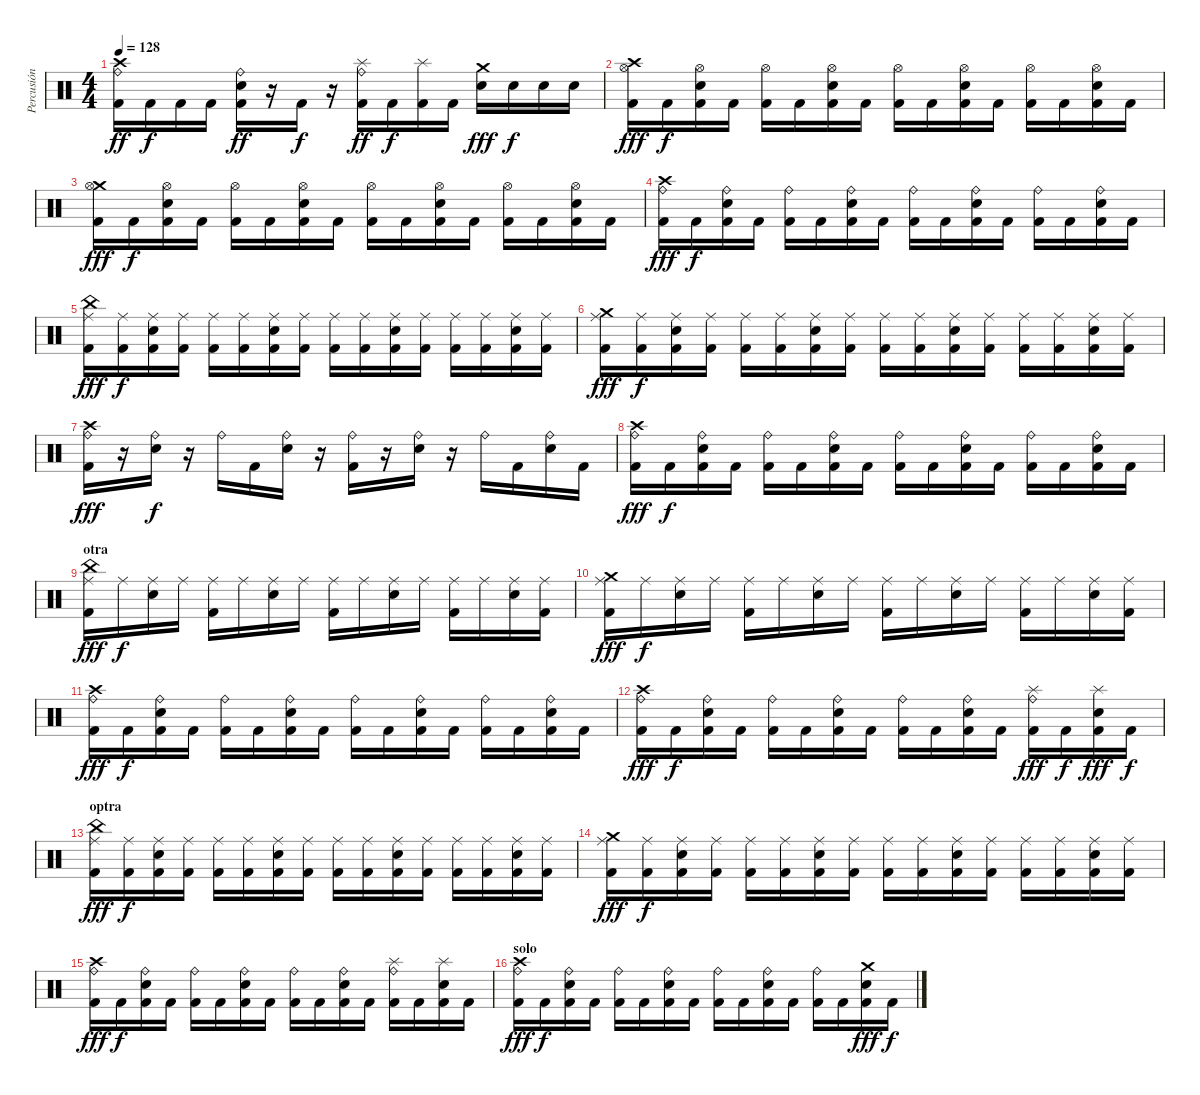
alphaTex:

\track ("Percusión" "Percusión") {instrument percussion}
\staff {score}
\articulation defaults
\ts (4 4)
\tempo 128
\clef neutral
\ks c
("Crash high (hit)" "Ride (bell)" "Kick (hit) 2").16{dy ff} "Kick (hit) 2".16{dy f} "Kick (hit) 2".16 "Kick (hit) 2".16 ("Ride (bell)" "Kick (hit) 2" "Snare (hit) 2").16{dy ff} r.16 "Kick (hit) 2".16{dy f} r.16 ("Splash (hit)" "Ride (bell)" "Kick (hit) 2").16{dy ff} "Kick (hit) 2".16{dy f} ("Splash (hit)" "Kick (hit) 2").16 "Kick (hit) 2".16 ("Crash medium (hit)" "Snare (hit) 2").16{dy fff} "Snare (hit) 2".16{dy f} "Snare (hit) 2".16 "Snare (hit) 2".16 |
("Crash high (hit)" "Hi-Hat (open)" "Kick (hit) 2").16{dy fff} "Kick (hit) 2".16{dy f} ("Hi-Hat (open)" "Kick (hit) 2" "Snare (hit) 2").16 "Kick (hit) 2".16 ("Hi-Hat (open)" "Kick (hit) 2").16 "Kick (hit) 2".16 ("Hi-Hat (open)" "Kick (hit) 2" "Snare (hit) 2").16 "Kick (hit) 2".16 ("Hi-Hat (open)" "Kick (hit) 2").16 "Kick (hit) 2".16 ("Hi-Hat (open)" "Kick (hit) 2" "Snare (hit) 2").16 "Kick (hit) 2".16 ("Hi-Hat (open)" "Kick (hit) 2").16 "Kick (hit) 2".16 ("Hi-Hat (open)" "Kick (hit) 2" "Snare (hit) 2").16 "Kick (hit) 2".16 |
("Crash medium (hit)" "Hi-Hat (open)" "Kick (hit) 2").16{dy fff} "Kick (hit) 2".16{dy f} ("Hi-Hat (open)" "Kick (hit) 2" "Snare (hit) 2").16 "Kick (hit) 2".16 ("Hi-Hat (open)" "Kick (hit) 2").16 "Kick (hit) 2".16 ("Hi-Hat (open)" "Kick (hit) 2" "Snare (hit) 2").16 "Kick (hit) 2".16 ("Hi-Hat (open)" "Kick (hit) 2").16 "Kick (hit) 2".16 ("Hi-Hat (open)" "Kick (hit) 2" "Snare (hit) 2").16 "Kick (hit) 2".16 ("Hi-Hat (open)" "Kick (hit) 2").16 "Kick (hit) 2".16 ("Hi-Hat (open)" "Kick (hit) 2" "Snare (hit) 2").16 "Kick (hit) 2".16 |
("Crash high (hit)" "Ride (bell)" "Kick (hit) 2").16{dy fff} "Kick (hit) 2".16{dy f} ("Ride (bell)" "Kick (hit) 2" "Snare (hit) 2").16 "Kick (hit) 2".16 ("Ride (bell)" "Kick (hit) 2").16 "Kick (hit) 2".16 ("Ride (bell)" "Kick (hit) 2" "Snare (hit) 2").16 "Kick (hit) 2".16 ("Ride (bell)" "Kick (hit) 2").16 "Kick (hit) 2".16 ("Ride (bell)" "Kick (hit) 2" "Snare (hit) 2").16 "Kick (hit) 2".16 ("Ride (bell)" "Kick (hit) 2").16 "Kick (hit) 2".16 ("Ride (bell)" "Kick (hit) 2" "Snare (hit) 2").16 "Kick (hit) 2".16 |
("China (hit)" "Ride (middle)" "Kick (hit) 2").16{dy fff} ("Ride (middle)" "Kick (hit) 2").16{dy f} ("Ride (middle)" "Kick (hit) 2" "Snare (hit) 2").16 ("Ride (middle)" "Kick (hit) 2").16 ("Ride (middle)" "Kick (hit) 2").16 ("Ride (middle)" "Kick (hit) 2").16 ("Ride (middle)" "Kick (hit) 2" "Snare (hit) 2").16 ("Ride (middle)" "Kick (hit) 2").16 ("Ride (middle)" "Kick (hit) 2").16 ("Ride (middle)" "Kick (hit) 2").16 ("Ride (middle)" "Kick (hit) 2" "Snare (hit) 2").16 ("Ride (middle)" "Kick (hit) 2").16 ("Ride (middle)" "Kick (hit) 2").16 ("Ride (middle)" "Kick (hit) 2").16 ("Ride (middle)" "Kick (hit) 2" "Snare (hit) 2").16 ("Ride (middle)" "Kick (hit) 2").16 |
("Crash medium (hit)" "Ride (middle)" "Kick (hit) 2").16{dy fff} ("Ride (middle)" "Kick (hit) 2").16{dy f} ("Ride (middle)" "Kick (hit) 2" "Snare (hit) 2").16 ("Ride (middle)" "Kick (hit) 2").16 ("Ride (middle)" "Kick (hit) 2").16 ("Ride (middle)" "Kick (hit) 2").16 ("Ride (middle)" "Kick (hit) 2" "Snare (hit) 2").16 ("Ride (middle)" "Kick (hit) 2").16 ("Ride (middle)" "Kick (hit) 2").16 ("Ride (middle)" "Kick (hit) 2").16 ("Ride (middle)" "Kick (hit) 2" "Snare (hit) 2").16 ("Ride (middle)" "Kick (hit) 2").16 ("Ride (middle)" "Kick (hit) 2").16 ("Ride (middle)" "Kick (hit) 2").16 ("Ride (middle)" "Kick (hit) 2" "Snare (hit) 2").16 ("Ride (middle)" "Kick (hit) 2").16 |
("Crash high (hit)" "Ride (bell)" "Kick (hit) 2").16{dy fff} r.16 ("Ride (bell)" "Snare (hit) 2").16{dy f} r.16 "Ride (bell)".16 "Kick (hit) 2".16 ("Ride (bell)" "Snare (hit) 2").16 r.16 ("Ride (bell)" "Kick (hit) 2").16 r.16 ("Ride (bell)" "Snare (hit) 2").16 r.16 "Ride (bell)".16 "Kick (hit) 2".16 ("Ride (bell)" "Snare (hit) 2").16 "Kick (hit) 2".16 |
("Crash high (hit)" "Ride (bell)" "Kick (hit) 2").16{dy fff} "Kick (hit) 2".16{dy f} ("Ride (bell)" "Kick (hit) 2" "Snare (hit) 2").16 "Kick (hit) 2".16 ("Ride (bell)" "Kick (hit) 2").16 "Kick (hit) 2".16 ("Ride (bell)" "Kick (hit) 2" "Snare (hit) 2").16 "Kick (hit) 2".16 ("Ride (bell)" "Kick (hit) 2").16 "Kick (hit) 2".16 ("Ride (bell)" "Kick (hit) 2" "Snare (hit) 2").16 "Kick (hit) 2".16 ("Ride (bell)" "Kick (hit) 2").16 "Kick (hit) 2".16 ("Ride (bell)" "Kick (hit) 2" "Snare (hit) 2").16 "Kick (hit) 2".16 |
\section ("" "otra")
("China (hit)" "Ride (middle)" "Kick (hit) 2").16{dy fff} "Ride (middle)".16{dy f} ("Ride (middle)" "Snare (hit) 2").16 "Ride (middle)".16 ("Ride (middle)" "Kick (hit) 2").16 "Ride (middle)".16 ("Ride (middle)" "Snare (hit) 2").16 "Ride (middle)".16 ("Ride (middle)" "Kick (hit) 2").16 "Ride (middle)".16 ("Ride (middle)" "Snare (hit) 2").16 "Ride (middle)".16 ("Ride (middle)" "Kick (hit) 2").16 "Ride (middle)".16 ("Ride (middle)" "Snare (hit) 2").16 ("Ride (middle)" "Kick (hit) 2").16 |
("Crash medium (hit)" "Ride (middle)" "Kick (hit) 2").16{dy fff} "Ride (middle)".16{dy f} ("Ride (middle)" "Snare (hit) 2").16 "Ride (middle)".16 ("Ride (middle)" "Kick (hit) 2").16 "Ride (middle)".16 ("Ride (middle)" "Snare (hit) 2").16 "Ride (middle)".16 ("Ride (middle)" "Kick (hit) 2").16 "Ride (middle)".16 ("Ride (middle)" "Snare (hit) 2").16 "Ride (middle)".16 ("Ride (middle)" "Kick (hit) 2").16 "Ride (middle)".16 ("Ride (middle)" "Snare (hit) 2").16 ("Ride (middle)" "Kick (hit) 2").16 |
("Crash high (hit)" "Ride (bell)" "Kick (hit) 2").16{dy fff} "Kick (hit) 2".16{dy f} ("Ride (bell)" "Kick (hit) 2" "Snare (hit) 2").16 "Kick (hit) 2".16 ("Ride (bell)" "Kick (hit) 2").16 "Kick (hit) 2".16 ("Ride (bell)" "Kick (hit) 2" "Snare (hit) 2").16 "Kick (hit) 2".16 ("Ride (bell)" "Kick (hit) 2").16 "Kick (hit) 2".16 ("Ride (bell)" "Kick (hit) 2" "Snare (hit) 2").16 "Kick (hit) 2".16 ("Ride (bell)" "Kick (hit) 2").16 "Kick (hit) 2".16 ("Ride (bell)" "Kick (hit) 2" "Snare (hit) 2").16 "Kick (hit) 2".16 |
("Crash high (hit)" "Ride (bell)" "Kick (hit) 2").16{dy fff} "Kick (hit) 2".16{dy f} ("Ride (bell)" "Kick (hit) 2" "Snare (hit) 2").16 "Kick (hit) 2".16 ("Ride (bell)" "Kick (hit) 2").16 "Kick (hit) 2".16 ("Ride (bell)" "Kick (hit) 2" "Snare (hit) 2").16 "Kick (hit) 2".16 ("Ride (bell)" "Kick (hit) 2").16 "Kick (hit) 2".16 ("Ride (bell)" "Kick (hit) 2" "Snare (hit) 2").16 "Kick (hit) 2".16 ("Splash (hit)" "Ride (bell)" "Kick (hit) 2").16{dy fff} "Kick (hit) 2".16{dy f} ("Splash (hit)" "Kick (hit) 2" "Snare (hit) 2").16{dy fff} "Kick (hit) 2".16{dy f} |
\section ("" "optra")
("China (hit)" "Ride (middle)" "Kick (hit) 2").16{dy fff} ("Ride (middle)" "Kick (hit) 2").16{dy f} ("Ride (middle)" "Kick (hit) 2" "Snare (hit) 2").16 ("Ride (middle)" "Kick (hit) 2").16 ("Ride (middle)" "Kick (hit) 2").16 ("Ride (middle)" "Kick (hit) 2").16 ("Ride (middle)" "Kick (hit) 2" "Snare (hit) 2").16 ("Ride (middle)" "Kick (hit) 2").16 ("Ride (middle)" "Kick (hit) 2").16 ("Ride (middle)" "Kick (hit) 2").16 ("Ride (middle)" "Kick (hit) 2" "Snare (hit) 2").16 ("Ride (middle)" "Kick (hit) 2").16 ("Ride (middle)" "Kick (hit) 2").16 ("Ride (middle)" "Kick (hit) 2").16 ("Ride (middle)" "Kick (hit) 2" "Snare (hit) 2").16 ("Ride (middle)" "Kick (hit) 2").16 |
("Crash medium (hit)" "Ride (middle)" "Kick (hit) 2").16{dy fff} ("Ride (middle)" "Kick (hit) 2").16{dy f} ("Ride (middle)" "Kick (hit) 2" "Snare (hit) 2").16 ("Ride (middle)" "Kick (hit) 2").16 ("Ride (middle)" "Kick (hit) 2").16 ("Ride (middle)" "Kick (hit) 2").16 ("Ride (middle)" "Kick (hit) 2" "Snare (hit) 2").16 ("Ride (middle)" "Kick (hit) 2").16 ("Ride (middle)" "Kick (hit) 2").16 ("Ride (middle)" "Kick (hit) 2").16 ("Ride (middle)" "Kick (hit) 2" "Snare (hit) 2").16 ("Ride (middle)" "Kick (hit) 2").16 ("Ride (middle)" "Kick (hit) 2").16 ("Ride (middle)" "Kick (hit) 2").16 ("Ride (middle)" "Kick (hit) 2" "Snare (hit) 2").16 ("Ride (middle)" "Kick (hit) 2").16 |
("Crash high (hit)" "Ride (bell)" "Kick (hit) 2").16{dy fff} "Kick (hit) 2".16{dy f} ("Ride (bell)" "Kick (hit) 2" "Snare (hit) 2").16 "Kick (hit) 2".16 ("Ride (bell)" "Kick (hit) 2").16 "Kick (hit) 2".16 ("Ride (bell)" "Kick (hit) 2" "Snare (hit) 2").16 "Kick (hit) 2".16 ("Ride (bell)" "Kick (hit) 2").16 "Kick (hit) 2".16 ("Ride (bell)" "Kick (hit) 2" "Snare (hit) 2").16 "Kick (hit) 2".16 ("Splash (hit)" "Ride (bell)" "Kick (hit) 2").16 "Kick (hit) 2".16 ("Splash (hit)" "Kick (hit) 2" "Snare (hit) 2").16 "Kick (hit) 2".16 |
\section ("" "solo")
("Crash high (hit)" "Ride (bell)" "Kick (hit) 2").16{dy fff} "Kick (hit) 2".16{dy f} ("Ride (bell)" "Kick (hit) 2" "Snare (hit) 2").16 "Kick (hit) 2".16 ("Ride (bell)" "Kick (hit) 2").16 "Kick (hit) 2".16 ("Ride (bell)" "Kick (hit) 2" "Snare (hit) 2").16 "Kick (hit) 2".16 ("Ride (bell)" "Kick (hit) 2").16 "Kick (hit) 2".16 ("Ride (bell)" "Kick (hit) 2" "Snare (hit) 2").16 "Kick (hit) 2".16 ("Ride (bell)" "Kick (hit) 2").16 "Kick (hit) 2".16 ("Crash medium (hit)" "Kick (hit) 2" "Snare (hit) 2").16{dy fff} "Kick (hit) 2".16{dy f}
